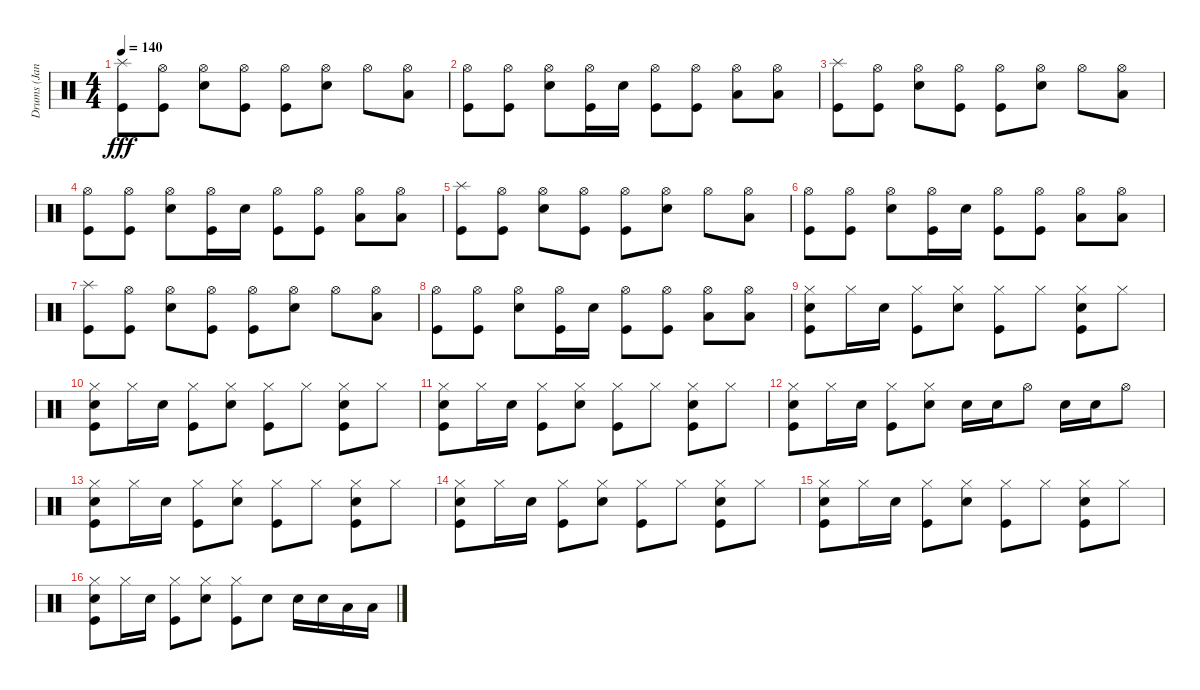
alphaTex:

\track ("Drums (Janet)" "Drums (Jan") {instrument percussion}
\staff {score}
\articulation defaults
\ts (4 4)
\tempo 140
\clef neutral
\ks c
("Splash (hit)" "Kick (hit)").8{dy fff} ("Hi-Hat (open)" "Kick (hit)").8 ("Hi-Hat (open)" "Snare (hit) 2").8 ("Hi-Hat (open)" "Kick (hit)").8 ("Hi-Hat (open)" "Kick (hit)").8 ("Hi-Hat (open)" "Snare (hit) 2").8 "Hi-Hat (open)".8 ("Hi-Hat (open)" "Low Tom (hit)").8 |
("Hi-Hat (open)" "Kick (hit)").8 ("Hi-Hat (open)" "Kick (hit)").8 ("Hi-Hat (open)" "Snare (hit) 2").8 ("Hi-Hat (open)" "Kick (hit)").16 "Snare (hit) 2".16 ("Hi-Hat (open)" "Kick (hit)").8 ("Hi-Hat (open)" "Kick (hit)").8 ("Hi-Hat (open)" "Low Tom (hit)").8 ("Hi-Hat (open)" "Low Tom (hit)").8 |
("Splash (hit)" "Kick (hit)").8 ("Hi-Hat (open)" "Kick (hit)").8 ("Hi-Hat (open)" "Snare (hit) 2").8 ("Hi-Hat (open)" "Kick (hit)").8 ("Hi-Hat (open)" "Kick (hit)").8 ("Hi-Hat (open)" "Snare (hit) 2").8 "Hi-Hat (open)".8 ("Hi-Hat (open)" "Low Tom (hit)").8 |
("Hi-Hat (open)" "Kick (hit)").8 ("Hi-Hat (open)" "Kick (hit)").8 ("Hi-Hat (open)" "Snare (hit) 2").8 ("Hi-Hat (open)" "Kick (hit)").16 "Snare (hit) 2".16 ("Hi-Hat (open)" "Kick (hit)").8 ("Hi-Hat (open)" "Kick (hit)").8 ("Hi-Hat (open)" "Low Tom (hit)").8 ("Hi-Hat (open)" "Low Tom (hit)").8 |
("Splash (hit)" "Kick (hit)").8 ("Hi-Hat (open)" "Kick (hit)").8 ("Hi-Hat (open)" "Snare (hit) 2").8 ("Hi-Hat (open)" "Kick (hit)").8 ("Hi-Hat (open)" "Kick (hit)").8 ("Hi-Hat (open)" "Snare (hit) 2").8 "Hi-Hat (open)".8 ("Hi-Hat (open)" "Low Tom (hit)").8 |
("Hi-Hat (open)" "Kick (hit)").8 ("Hi-Hat (open)" "Kick (hit)").8 ("Hi-Hat (open)" "Snare (hit) 2").8 ("Hi-Hat (open)" "Kick (hit)").16 "Snare (hit) 2".16 ("Hi-Hat (open)" "Kick (hit)").8 ("Hi-Hat (open)" "Kick (hit)").8 ("Hi-Hat (open)" "Low Tom (hit)").8 ("Hi-Hat (open)" "Low Tom (hit)").8 |
("Splash (hit)" "Kick (hit)").8 ("Hi-Hat (open)" "Kick (hit)").8 ("Hi-Hat (open)" "Snare (hit) 2").8 ("Hi-Hat (open)" "Kick (hit)").8 ("Hi-Hat (open)" "Kick (hit)").8 ("Hi-Hat (open)" "Snare (hit) 2").8 "Hi-Hat (open)".8 ("Hi-Hat (open)" "Low Tom (hit)").8 |
("Hi-Hat (open)" "Kick (hit)").8 ("Hi-Hat (open)" "Kick (hit)").8 ("Hi-Hat (open)" "Snare (hit) 2").8 ("Hi-Hat (open)" "Kick (hit)").16 "Snare (hit) 2".16 ("Hi-Hat (open)" "Kick (hit)").8 ("Hi-Hat (open)" "Kick (hit)").8 ("Hi-Hat (open)" "Low Tom (hit)").8 ("Hi-Hat (open)" "Low Tom (hit)").8 |
("Hi-Hat (closed)" "Snare (hit) 2" "Kick (hit)").8 "Hi-Hat (closed)".16 "Snare (hit) 2".16 ("Hi-Hat (closed)" "Kick (hit)").8 ("Hi-Hat (closed)" "Snare (hit) 2").8 ("Hi-Hat (closed)" "Kick (hit)").8 "Hi-Hat (closed)".8 ("Hi-Hat (closed)" "Snare (hit) 2" "Kick (hit)").8 "Hi-Hat (closed)".8 |
("Hi-Hat (closed)" "Snare (hit) 2" "Kick (hit)").8 "Hi-Hat (closed)".16 "Snare (hit) 2".16 ("Hi-Hat (closed)" "Kick (hit)").8 ("Hi-Hat (closed)" "Snare (hit) 2").8 ("Hi-Hat (closed)" "Kick (hit)").8 "Hi-Hat (closed)".8 ("Hi-Hat (closed)" "Snare (hit) 2" "Kick (hit)").8 "Hi-Hat (closed)".8 |
("Hi-Hat (closed)" "Snare (hit) 2" "Kick (hit)").8 "Hi-Hat (closed)".16 "Snare (hit) 2".16 ("Hi-Hat (closed)" "Kick (hit)").8 ("Hi-Hat (closed)" "Snare (hit) 2").8 ("Hi-Hat (closed)" "Kick (hit)").8 "Hi-Hat (closed)".8 ("Hi-Hat (closed)" "Snare (hit) 2" "Kick (hit)").8 "Hi-Hat (closed)".8 |
("Hi-Hat (closed)" "Snare (hit) 2" "Kick (hit)").8 "Hi-Hat (closed)".16 "Snare (hit) 2".16 ("Hi-Hat (closed)" "Kick (hit)").8 ("Hi-Hat (closed)" "Snare (hit) 2").8 "Snare (hit) 2".16 "Snare (hit) 2".16 "Hi-Hat (open)".8 "Snare (hit) 2".16 "Snare (hit) 2".16 "Hi-Hat (open)".8 |
("Hi-Hat (closed)" "Snare (hit) 2" "Kick (hit)").8 "Hi-Hat (closed)".16 "Snare (hit) 2".16 ("Hi-Hat (closed)" "Kick (hit)").8 ("Hi-Hat (closed)" "Snare (hit) 2").8 ("Hi-Hat (closed)" "Kick (hit)").8 "Hi-Hat (closed)".8 ("Hi-Hat (closed)" "Snare (hit) 2" "Kick (hit)").8 "Hi-Hat (closed)".8 |
("Hi-Hat (closed)" "Snare (hit) 2" "Kick (hit)").8 "Hi-Hat (closed)".16 "Snare (hit) 2".16 ("Hi-Hat (closed)" "Kick (hit)").8 ("Hi-Hat (closed)" "Snare (hit) 2").8 ("Hi-Hat (closed)" "Kick (hit)").8 "Hi-Hat (closed)".8 ("Hi-Hat (closed)" "Snare (hit) 2" "Kick (hit)").8 "Hi-Hat (closed)".8 |
("Hi-Hat (closed)" "Snare (hit) 2" "Kick (hit)").8 "Hi-Hat (closed)".16 "Snare (hit) 2".16 ("Hi-Hat (closed)" "Kick (hit)").8 ("Hi-Hat (closed)" "Snare (hit) 2").8 ("Hi-Hat (closed)" "Kick (hit)").8 "Hi-Hat (closed)".8 ("Hi-Hat (closed)" "Snare (hit) 2" "Kick (hit)").8 "Hi-Hat (closed)".8 |
("Hi-Hat (closed)" "Snare (hit) 2" "Kick (hit)").8 "Hi-Hat (closed)".16 "Snare (hit) 2".16 ("Hi-Hat (closed)" "Kick (hit)").8 ("Hi-Hat (closed)" "Snare (hit) 2").8 ("Hi-Hat (closed)" "Kick (hit)").8 "Snare (hit) 2".8 "Snare (hit) 2".16 "Snare (hit) 2".16 "Low Tom (hit)".16 "Low Tom (hit)".16
